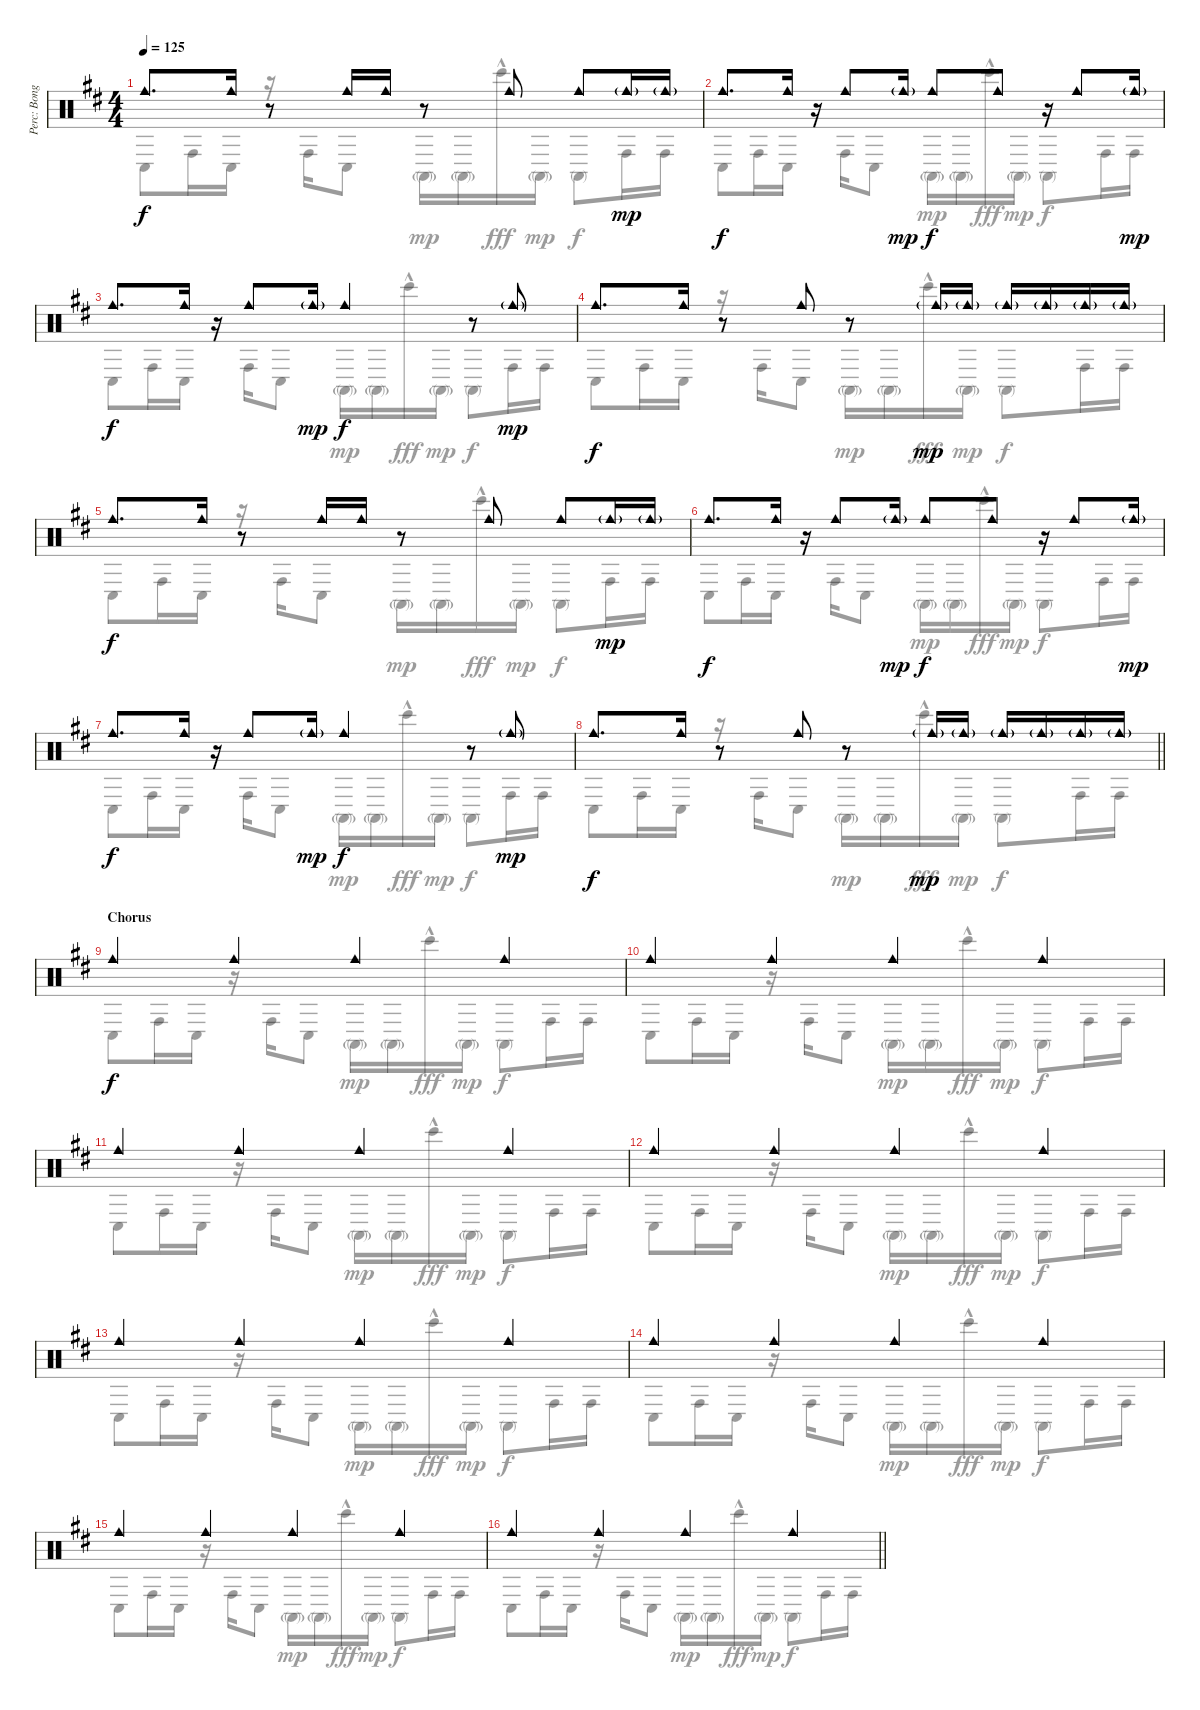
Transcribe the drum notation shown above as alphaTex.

\track ("Perc: Bongos + Cowbell + Triangle" "Perc: Bong") {instrument percussion}
\staff {score}
\articulation defaults
\voice
\ts (4 4)
\tempo 125
\clef neutral
\ks bminor "Cowbell medium (hit)".8{d dy f} "Cowbell medium (hit)".16
r.8 "Cowbell medium (hit)".16 "Cowbell medium (hit)".16 r.8 "Cowbell medium (hit)".8 "Cowbell medium (hit)".8 "Cowbell medium (hit)"{g}.16{dy mp} "Cowbell medium (hit)"{g}.16 |
"Cowbell medium (hit)".8{d dy f} "Cowbell medium (hit)".16 r.16 "Cowbell medium (hit)".8 "Cowbell medium (hit)"{g}.16{dy mp} "Cowbell medium (hit)".8{dy f} "Cowbell medium (hit)".8 r.16 "Cowbell medium (hit)".8 "Cowbell medium (hit)"{g}.16{dy mp} |
"Cowbell medium (hit)".8{d dy f} "Cowbell medium (hit)".16 r.16 "Cowbell medium (hit)".8 "Cowbell medium (hit)"{g}.16{dy mp} "Cowbell medium (hit)".4{dy f} r.8 "Cowbell medium (hit)"{g}.8{dy mp} |
"Cowbell medium (hit)".8{d dy f} "Cowbell medium (hit)".16 r.8 "Cowbell medium (hit)".8 r.8 "Cowbell medium (hit)"{g}.16{dy mp} "Cowbell medium (hit)"{g}.16 "Cowbell medium (hit)"{g}.16 "Cowbell medium (hit)"{g}.16 "Cowbell medium (hit)"{g}.16 "Cowbell medium (hit)"{g}.16 |
"Cowbell medium (hit)".8{d dy f} "Cowbell medium (hit)".16 r.8 "Cowbell medium (hit)".16 "Cowbell medium (hit)".16 r.8 "Cowbell medium (hit)".8 "Cowbell medium (hit)".8 "Cowbell medium (hit)"{g}.16{dy mp} "Cowbell medium (hit)"{g}.16 |
"Cowbell medium (hit)".8{d dy f} "Cowbell medium (hit)".16 r.16 "Cowbell medium (hit)".8 "Cowbell medium (hit)"{g}.16{dy mp} "Cowbell medium (hit)".8{dy f} "Cowbell medium (hit)".8 r.16 "Cowbell medium (hit)".8 "Cowbell medium (hit)"{g}.16{dy mp} |
"Cowbell medium (hit)".8{d dy f} "Cowbell medium (hit)".16 r.16 "Cowbell medium (hit)".8 "Cowbell medium (hit)"{g}.16{dy mp} "Cowbell medium (hit)".4{dy f} r.8 "Cowbell medium (hit)"{g}.8{dy mp} |
\barLineRight lightlight "Cowbell medium (hit)".8{d dy f} "Cowbell medium (hit)".16
r.8 "Cowbell medium (hit)".8 r.8 "Cowbell medium (hit)"{g}.16{dy mp} "Cowbell medium (hit)"{g}.16 "Cowbell medium (hit)"{g}.16 "Cowbell medium (hit)"{g}.16 "Cowbell medium (hit)"{g}.16 "Cowbell medium (hit)"{g}.16 |
\section ("" "Chorus")
"Cowbell medium (hit)".4{dy f} "Cowbell medium (hit)".4 "Cowbell medium (hit)".4 "Cowbell medium (hit)".4 |
"Cowbell medium (hit)".4 "Cowbell medium (hit)".4 "Cowbell medium (hit)".4 "Cowbell medium (hit)".4 |
"Cowbell medium (hit)".4 "Cowbell medium (hit)".4 "Cowbell medium (hit)".4 "Cowbell medium (hit)".4 |
"Cowbell medium (hit)".4 "Cowbell medium (hit)".4 "Cowbell medium (hit)".4 "Cowbell medium (hit)".4 |
"Cowbell medium (hit)".4 "Cowbell medium (hit)".4 "Cowbell medium (hit)".4 "Cowbell medium (hit)".4 |
"Cowbell medium (hit)".4 "Cowbell medium (hit)".4 "Cowbell medium (hit)".4 "Cowbell medium (hit)".4 |
"Cowbell medium (hit)".4 "Cowbell medium (hit)".4 "Cowbell medium (hit)".4 "Cowbell medium (hit)".4 |
\barLineRight lightlight "Cowbell medium (hit)".4 "Cowbell medium (hit)".4 "Cowbell medium (hit)".4 "Cowbell medium (hit)".4
\voice
\clef neutral
\ottava regular
\simile none
\ks bminor "Conga low (hit)".8{dy f} "Conga high (hit)".16 "Conga low (hit)".16
r.16 "Conga high (hit)".16 "Conga low (hit)".8 "Conga high (mute)"{g}.16{dy mp} "Conga high (mute)"{g}.16 "Bongo High (hit)"{hac}.16{dy fff} "Conga high (mute)"{g}.16{dy mp} "Conga high (mute)".8{dy f} "Conga high (hit)".16 "Conga high (hit)".16 |
"Conga low (hit)".8 "Conga high (hit)".16 "Conga low (hit)".16 r.16 "Conga high (hit)".16 "Conga low (hit)".8 "Conga high (mute)"{g}.16{dy mp} "Conga high (mute)"{g}.16 "Bongo High (hit)"{hac}.16{dy fff} "Conga high (mute)"{g}.16{dy mp} "Conga high (mute)".8{dy f} "Conga high (hit)".16 "Conga high (hit)".16 |
"Conga low (hit)".8 "Conga high (hit)".16 "Conga low (hit)".16 r.16 "Conga high (hit)".16 "Conga low (hit)".8 "Conga high (mute)"{g}.16{dy mp} "Conga high (mute)"{g}.16 "Bongo High (hit)"{hac}.16{dy fff} "Conga high (mute)"{g}.16{dy mp} "Conga high (mute)".8{dy f} "Conga high (hit)".16 "Conga high (hit)".16 |
"Conga low (hit)".8 "Conga high (hit)".16 "Conga low (hit)".16 r.16 "Conga high (hit)".16 "Conga low (hit)".8 "Conga high (mute)"{g}.16{dy mp} "Conga high (mute)"{g}.16 "Bongo High (hit)"{hac}.16{dy fff} "Conga high (mute)"{g}.16{dy mp} "Conga high (mute)".8{dy f} "Conga high (hit)".16 "Conga high (hit)".16 |
"Conga low (hit)".8 "Conga high (hit)".16 "Conga low (hit)".16 r.16 "Conga high (hit)".16 "Conga low (hit)".8 "Conga high (mute)"{g}.16{dy mp} "Conga high (mute)"{g}.16 "Bongo High (hit)"{hac}.16{dy fff} "Conga high (mute)"{g}.16{dy mp} "Conga high (mute)".8{dy f} "Conga high (hit)".16 "Conga high (hit)".16 |
"Conga low (hit)".8 "Conga high (hit)".16 "Conga low (hit)".16 r.16 "Conga high (hit)".16 "Conga low (hit)".8 "Conga high (mute)"{g}.16{dy mp} "Conga high (mute)"{g}.16 "Bongo High (hit)"{hac}.16{dy fff} "Conga high (mute)"{g}.16{dy mp} "Conga high (mute)".8{dy f} "Conga high (hit)".16 "Conga high (hit)".16 |
"Conga low (hit)".8 "Conga high (hit)".16 "Conga low (hit)".16 r.16 "Conga high (hit)".16 "Conga low (hit)".8 "Conga high (mute)"{g}.16{dy mp} "Conga high (mute)"{g}.16 "Bongo High (hit)"{hac}.16{dy fff} "Conga high (mute)"{g}.16{dy mp} "Conga high (mute)".8{dy f} "Conga high (hit)".16 "Conga high (hit)".16 |
\barLineRight lightlight "Conga low (hit)".8 "Conga high (hit)".16 "Conga low (hit)".16
r.16 "Conga high (hit)".16 "Conga low (hit)".8 "Conga high (mute)"{g}.16{dy mp} "Conga high (mute)"{g}.16 "Bongo High (hit)"{hac}.16{dy fff} "Conga high (mute)"{g}.16{dy mp} "Conga high (mute)".8{dy f} "Conga high (hit)".16 "Conga high (hit)".16 |
"Conga low (hit)".8 "Conga high (hit)".16 "Conga low (hit)".16 r.16 "Conga high (hit)".16 "Conga low (hit)".8 "Conga high (mute)"{g}.16{dy mp} "Conga high (mute)"{g}.16 "Bongo High (hit)"{hac}.16{dy fff} "Conga high (mute)"{g}.16{dy mp} "Conga high (mute)".8{dy f} "Conga high (hit)".16 "Conga high (hit)".16 |
"Conga low (hit)".8 "Conga high (hit)".16 "Conga low (hit)".16 r.16 "Conga high (hit)".16 "Conga low (hit)".8 "Conga high (mute)"{g}.16{dy mp} "Conga high (mute)"{g}.16 "Bongo High (hit)"{hac}.16{dy fff} "Conga high (mute)"{g}.16{dy mp} "Conga high (mute)".8{dy f} "Conga high (hit)".16 "Conga high (hit)".16 |
"Conga low (hit)".8 "Conga high (hit)".16 "Conga low (hit)".16 r.16 "Conga high (hit)".16 "Conga low (hit)".8 "Conga high (mute)"{g}.16{dy mp} "Conga high (mute)"{g}.16 "Bongo High (hit)"{hac}.16{dy fff} "Conga high (mute)"{g}.16{dy mp} "Conga high (mute)".8{dy f} "Conga high (hit)".16 "Conga high (hit)".16 |
"Conga low (hit)".8 "Conga high (hit)".16 "Conga low (hit)".16 r.16 "Conga high (hit)".16 "Conga low (hit)".8 "Conga high (mute)"{g}.16{dy mp} "Conga high (mute)"{g}.16 "Bongo High (hit)"{hac}.16{dy fff} "Conga high (mute)"{g}.16{dy mp} "Conga high (mute)".8{dy f} "Conga high (hit)".16 "Conga high (hit)".16 |
"Conga low (hit)".8 "Conga high (hit)".16 "Conga low (hit)".16 r.16 "Conga high (hit)".16 "Conga low (hit)".8 "Conga high (mute)"{g}.16{dy mp} "Conga high (mute)"{g}.16 "Bongo High (hit)"{hac}.16{dy fff} "Conga high (mute)"{g}.16{dy mp} "Conga high (mute)".8{dy f} "Conga high (hit)".16 "Conga high (hit)".16 |
"Conga low (hit)".8 "Conga high (hit)".16 "Conga low (hit)".16 r.16 "Conga high (hit)".16 "Conga low (hit)".8 "Conga high (mute)"{g}.16{dy mp} "Conga high (mute)"{g}.16 "Bongo High (hit)"{hac}.16{dy fff} "Conga high (mute)"{g}.16{dy mp} "Conga high (mute)".8{dy f} "Conga high (hit)".16 "Conga high (hit)".16 |
"Conga low (hit)".8 "Conga high (hit)".16 "Conga low (hit)".16 r.16 "Conga high (hit)".16 "Conga low (hit)".8 "Conga high (mute)"{g}.16{dy mp} "Conga high (mute)"{g}.16 "Bongo High (hit)"{hac}.16{dy fff} "Conga high (mute)"{g}.16{dy mp} "Conga high (mute)".8{dy f} "Conga high (hit)".16 "Conga high (hit)".16 |
\barLineRight lightlight "Conga low (hit)".8 "Conga high (hit)".16 "Conga low (hit)".16
r.16 "Conga high (hit)".16 "Conga low (hit)".8 "Conga high (mute)"{g}.16{dy mp} "Conga high (mute)"{g}.16 "Bongo High (hit)"{hac}.16{dy fff} "Conga high (mute)"{g}.16{dy mp} "Conga high (mute)".8{dy f} "Conga high (hit)".16 "Conga high (hit)".16
